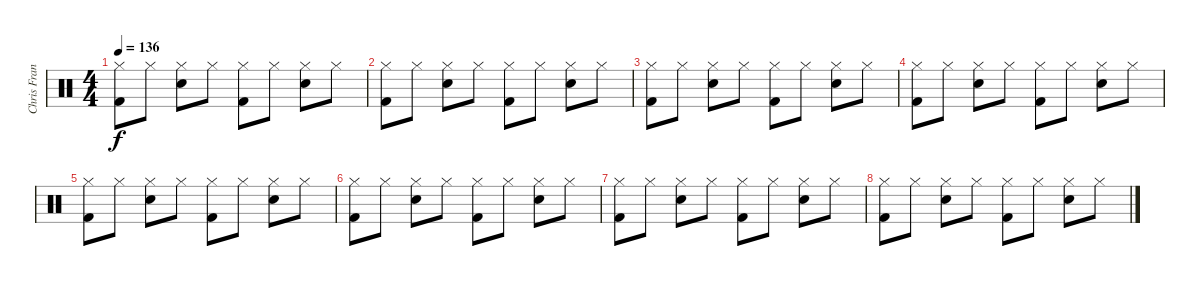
\track ("Chris Frantz" "Chris Fran") {instrument percussion}
\staff {score}
\articulation defaults
\ts (4 4)
\tempo 136
\clef neutral
\ks c
("Hi-Hat (closed)" "Kick (hit) 2").8{dy f} "Hi-Hat (closed)".8 ("Hi-Hat (closed)" "Electric Snare (hit)").8 "Hi-Hat (closed)".8 ("Hi-Hat (closed)" "Kick (hit) 2").8 "Hi-Hat (closed)".8 ("Hi-Hat (closed)" "Electric Snare (hit)").8 "Hi-Hat (closed)".8 |
("Hi-Hat (closed)" "Kick (hit) 2").8 "Hi-Hat (closed)".8 ("Hi-Hat (closed)" "Electric Snare (hit)").8 "Hi-Hat (closed)".8 ("Hi-Hat (closed)" "Kick (hit) 2").8 "Hi-Hat (closed)".8 ("Hi-Hat (closed)" "Electric Snare (hit)").8 "Hi-Hat (closed)".8 |
("Hi-Hat (closed)" "Kick (hit) 2").8 "Hi-Hat (closed)".8 ("Hi-Hat (closed)" "Electric Snare (hit)").8 "Hi-Hat (closed)".8 ("Hi-Hat (closed)" "Kick (hit) 2").8 "Hi-Hat (closed)".8 ("Hi-Hat (closed)" "Electric Snare (hit)").8 "Hi-Hat (closed)".8 |
("Hi-Hat (closed)" "Kick (hit) 2").8 "Hi-Hat (closed)".8 ("Hi-Hat (closed)" "Electric Snare (hit)").8 "Hi-Hat (closed)".8 ("Hi-Hat (closed)" "Kick (hit) 2").8 "Hi-Hat (closed)".8 ("Hi-Hat (closed)" "Electric Snare (hit)").8 "Hi-Hat (closed)".8 |
("Hi-Hat (closed)" "Kick (hit) 2").8 "Hi-Hat (closed)".8 ("Hi-Hat (closed)" "Electric Snare (hit)").8 "Hi-Hat (closed)".8 ("Hi-Hat (closed)" "Kick (hit) 2").8 "Hi-Hat (closed)".8 ("Hi-Hat (closed)" "Electric Snare (hit)").8 "Hi-Hat (closed)".8 |
("Hi-Hat (closed)" "Kick (hit) 2").8 "Hi-Hat (closed)".8 ("Hi-Hat (closed)" "Electric Snare (hit)").8 "Hi-Hat (closed)".8 ("Hi-Hat (closed)" "Kick (hit) 2").8 "Hi-Hat (closed)".8 ("Hi-Hat (closed)" "Electric Snare (hit)").8 "Hi-Hat (closed)".8 |
("Hi-Hat (closed)" "Kick (hit) 2").8 "Hi-Hat (closed)".8 ("Hi-Hat (closed)" "Electric Snare (hit)").8 "Hi-Hat (closed)".8 ("Hi-Hat (closed)" "Kick (hit) 2").8 "Hi-Hat (closed)".8 ("Hi-Hat (closed)" "Electric Snare (hit)").8 "Hi-Hat (closed)".8 |
("Hi-Hat (closed)" "Kick (hit) 2").8 "Hi-Hat (closed)".8 ("Hi-Hat (closed)" "Electric Snare (hit)").8 "Hi-Hat (closed)".8 ("Hi-Hat (closed)" "Kick (hit) 2").8 "Hi-Hat (closed)".8 ("Hi-Hat (closed)" "Electric Snare (hit)").8 "Hi-Hat (closed)".8
